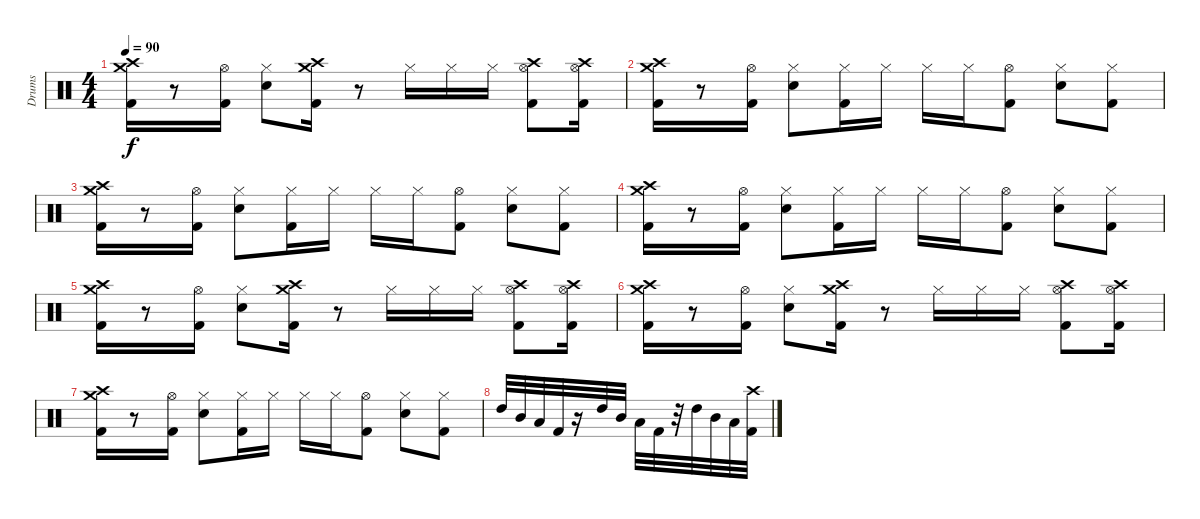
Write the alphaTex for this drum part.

\track ("Drums" "Drums") {instrument percussion}
\staff {score}
\articulation defaults
\ts (4 4)
\tempo 90
\clef neutral
\ks c
("Crash high (hit)" "Crash medium (hit)" "Kick (hit) 2").16{dy f} r.8 ("Hi-Hat (open)" "Kick (hit) 2").16 ("Hi-Hat (closed)" "Electric Snare (hit)").8 ("Crash high (hit)" "Crash medium (hit)" "Kick (hit) 2").16 r.8 "Hi-Hat (closed)".16 "Hi-Hat (closed)".16 "Hi-Hat (closed)".16 ("Crash high (hit)" "Hi-Hat (open)" "Kick (hit) 2").8 ("Crash high (hit)" "Hi-Hat (open)" "Kick (hit) 2").16 |
("Crash high (hit)" "Crash medium (hit)" "Kick (hit) 2").16 r.8 ("Hi-Hat (open)" "Kick (hit) 2").16 ("Hi-Hat (closed)" "Electric Snare (hit)").8 ("Hi-Hat (closed)" "Kick (hit) 2").16 "Hi-Hat (closed)".16 "Hi-Hat (closed)".16 "Hi-Hat (closed)".16 ("Hi-Hat (open)" "Kick (hit) 2").8 ("Hi-Hat (closed)" "Electric Snare (hit)").8 ("Hi-Hat (closed)" "Kick (hit) 2").8 |
("Crash high (hit)" "Crash medium (hit)" "Kick (hit) 2").16 r.8 ("Hi-Hat (open)" "Kick (hit) 2").16 ("Hi-Hat (closed)" "Electric Snare (hit)").8 ("Hi-Hat (closed)" "Kick (hit) 2").16 "Hi-Hat (closed)".16 "Hi-Hat (closed)".16 "Hi-Hat (closed)".16 ("Hi-Hat (open)" "Kick (hit) 2").8 ("Hi-Hat (closed)" "Electric Snare (hit)").8 ("Hi-Hat (closed)" "Kick (hit) 2").8 |
("Crash high (hit)" "Crash medium (hit)" "Kick (hit) 2").16 r.8 ("Hi-Hat (open)" "Kick (hit) 2").16 ("Hi-Hat (closed)" "Electric Snare (hit)").8 ("Hi-Hat (closed)" "Kick (hit) 2").16 "Hi-Hat (closed)".16 "Hi-Hat (closed)".16 "Hi-Hat (closed)".16 ("Hi-Hat (open)" "Kick (hit) 2").8 ("Hi-Hat (closed)" "Electric Snare (hit)").8 ("Hi-Hat (closed)" "Kick (hit) 2").8 |
("Crash high (hit)" "Crash medium (hit)" "Kick (hit) 2").16 r.8 ("Hi-Hat (open)" "Kick (hit) 2").16 ("Hi-Hat (closed)" "Electric Snare (hit)").8 ("Crash high (hit)" "Crash medium (hit)" "Kick (hit) 2").16 r.8 "Hi-Hat (closed)".16 "Hi-Hat (closed)".16 "Hi-Hat (closed)".16 ("Crash high (hit)" "Hi-Hat (open)" "Kick (hit) 2").8 ("Crash high (hit)" "Hi-Hat (open)" "Kick (hit) 2").16 |
("Crash high (hit)" "Crash medium (hit)" "Kick (hit) 2").16 r.8 ("Hi-Hat (open)" "Kick (hit) 2").16 ("Hi-Hat (closed)" "Electric Snare (hit)").8 ("Crash high (hit)" "Crash medium (hit)" "Kick (hit) 2").16 r.8 "Hi-Hat (closed)".16 "Hi-Hat (closed)".16 "Hi-Hat (closed)".16 ("Crash high (hit)" "Hi-Hat (open)" "Kick (hit) 2").8 ("Crash high (hit)" "Hi-Hat (open)" "Kick (hit) 2").16 |
("Crash high (hit)" "Crash medium (hit)" "Kick (hit) 2").16 r.8 ("Hi-Hat (open)" "Kick (hit) 2").16 ("Hi-Hat (closed)" "Electric Snare (hit)").8 ("Hi-Hat (closed)" "Kick (hit) 2").16 "Hi-Hat (closed)".16 "Hi-Hat (closed)".16 "Hi-Hat (closed)".16 ("Hi-Hat (open)" "Kick (hit) 2").8 ("Hi-Hat (closed)" "Electric Snare (hit)").8 ("Hi-Hat (closed)" "Kick (hit) 2").8 |
"High Tom (hit)".32 "Mid Tom (hit)".32 "Low Tom (hit)".32 "Kick (hit) 2".32 r.16 "High Tom (hit)".32 "Mid Tom (hit)".32 "Low Tom (hit)".32 "Kick (hit) 2".32 r.32 "High Tom (hit)".32 "Mid Tom (hit)".32 "Low Tom (hit)".32 ("Crash high (hit)" "Kick (hit) 2").32
